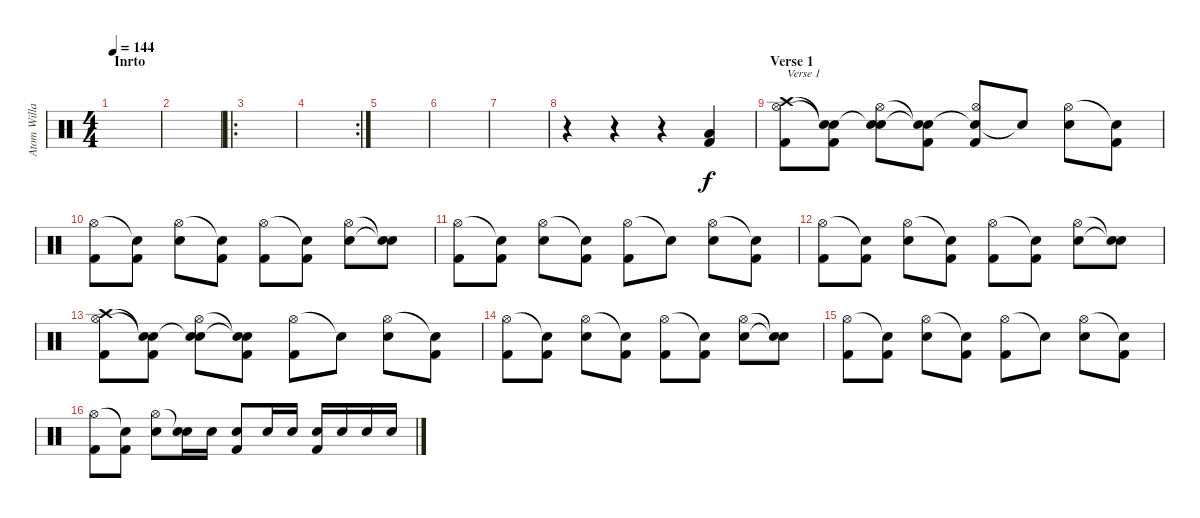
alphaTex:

\track ("Atom Willard (Drums)" "Atom Willa") {instrument percussion}
\staff {score}
\articulation defaults
\ts (4 4)
\section ("" "Inrto")
\tempo 144
\clef neutral
\ks c
|
|
\ro
|
\rc 2
|
|
|
|
r.4 r.4 r.4 ("Low Tom (hit)" "Kick (hit) 2").4 |
\section ("" "Verse 1")
("Crash high (hit)" "Hi-Hat (open)" "Kick (hit) 2").8{txt "Verse 1"} ("Snare (hit)"{t} "Snare (hit)"{t} "Kick (hit) 2").8 ("Snare (hit)"{t} "Hi-Hat (open)" "Electric Snare (hit)").8 ("Snare (hit)"{t} "Snare (hit)"{t} "Kick (hit) 2").8 ("Snare (hit)"{t} "Hi-Hat (open)" "Kick (hit) 2").8 "Snare (hit)"{t}.8 ("Hi-Hat (open)" "Electric Snare (hit)").8 ("Snare (hit)"{t} "Kick (hit) 2").8 |
("Hi-Hat (open)" "Kick (hit) 2").8 ("Snare (hit)"{t} "Kick (hit) 2").8 ("Hi-Hat (open)" "Electric Snare (hit)").8 ("Snare (hit)"{t} "Kick (hit) 2").8 ("Hi-Hat (open)" "Kick (hit) 2").8 ("Snare (hit)"{t} "Kick (hit) 2").8 ("Hi-Hat (open)" "Electric Snare (hit)").8 ("Snare (hit)"{t} "Snare (hit)"{t}).8 |
("Hi-Hat (open)" "Kick (hit) 2").8 ("Snare (hit)"{t} "Kick (hit) 2").8 ("Hi-Hat (open)" "Electric Snare (hit)").8 ("Snare (hit)"{t} "Kick (hit) 2").8 ("Hi-Hat (open)" "Kick (hit) 2").8 "Snare (hit)"{t}.8 ("Hi-Hat (open)" "Electric Snare (hit)").8 ("Snare (hit)"{t} "Kick (hit) 2").8 |
("Hi-Hat (open)" "Kick (hit) 2").8 ("Snare (hit)"{t} "Kick (hit) 2").8 ("Hi-Hat (open)" "Electric Snare (hit)").8 ("Snare (hit)"{t} "Kick (hit) 2").8 ("Hi-Hat (open)" "Kick (hit) 2").8 ("Snare (hit)"{t} "Kick (hit) 2").8 ("Hi-Hat (open)" "Electric Snare (hit)").8 ("Snare (hit)"{t} "Snare (hit)"{t}).8 |
("Crash high (hit)" "Hi-Hat (open)" "Kick (hit) 2").8 ("Snare (hit)"{t} "Snare (hit)"{t} "Kick (hit) 2").8 ("Snare (hit)"{t} "Hi-Hat (open)" "Electric Snare (hit)").8 ("Snare (hit)"{t} "Snare (hit)"{t} "Kick (hit) 2").8 ("Hi-Hat (open)" "Kick (hit) 2").8 "Snare (hit)"{t}.8 ("Hi-Hat (open)" "Electric Snare (hit)").8 ("Snare (hit)"{t} "Kick (hit) 2").8 |
("Hi-Hat (open)" "Kick (hit) 2").8 ("Snare (hit)"{t} "Kick (hit) 2").8 ("Hi-Hat (open)" "Electric Snare (hit)").8 ("Snare (hit)"{t} "Kick (hit) 2").8 ("Hi-Hat (open)" "Kick (hit) 2").8 ("Snare (hit)"{t} "Kick (hit) 2").8 ("Hi-Hat (open)" "Electric Snare (hit)").8 ("Snare (hit)"{t} "Snare (hit)"{t}).8 |
("Hi-Hat (open)" "Kick (hit) 2").8 ("Snare (hit)"{t} "Kick (hit) 2").8 ("Hi-Hat (open)" "Electric Snare (hit)").8 ("Snare (hit)"{t} "Kick (hit) 2").8 ("Hi-Hat (open)" "Kick (hit) 2").8 "Snare (hit)"{t}.8 ("Hi-Hat (open)" "Electric Snare (hit)").8 ("Snare (hit)"{t} "Kick (hit) 2").8 |
("Hi-Hat (open)" "Kick (hit) 2").8 ("Snare (hit)"{t} "Kick (hit) 2").8 ("Hi-Hat (open)" "Electric Snare (hit)").8 ("Snare (hit)"{t} "Electric Snare (hit)").16 "Electric Snare (hit)".16 ("Electric Snare (hit)" "Kick (hit) 2").8 "Electric Snare (hit)".16 "Electric Snare (hit)".16 ("Electric Snare (hit)" "Kick (hit) 2").16 "Electric Snare (hit)".16 "Electric Snare (hit)".16 "Electric Snare (hit)".16
